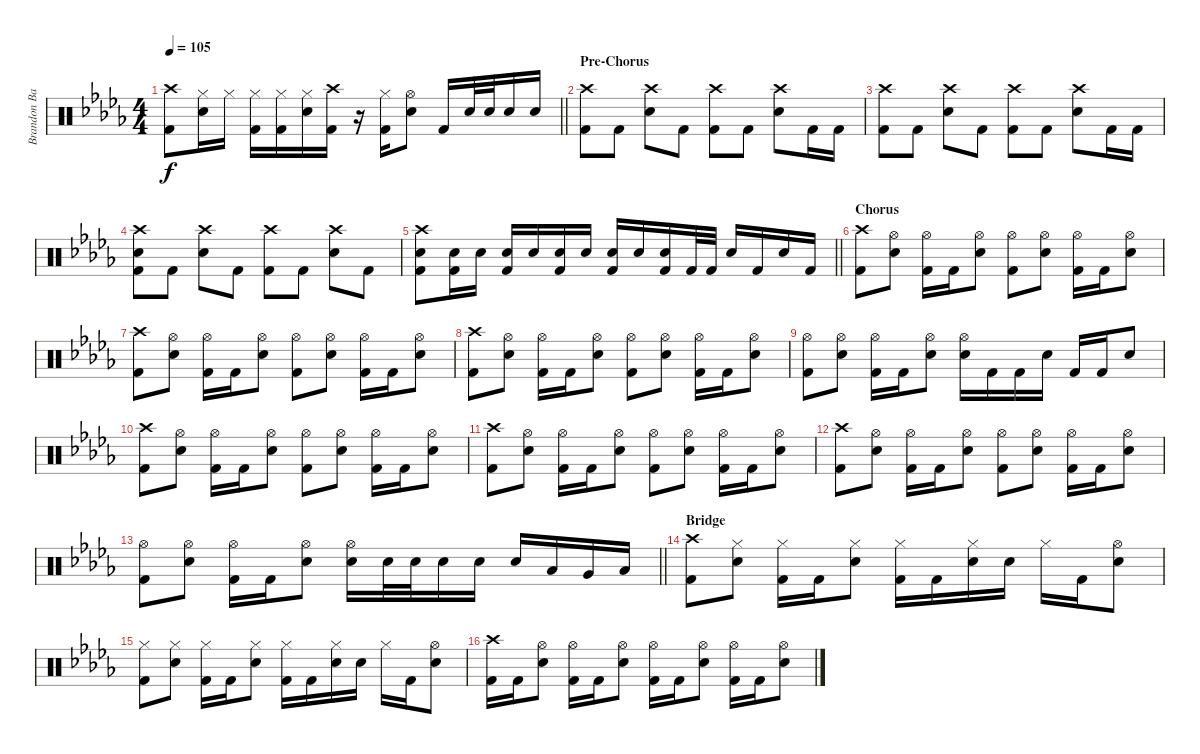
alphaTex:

\track ("Brandon Barnes - Drums" "Brandon Ba") {instrument percussion}
\staff {score}
\articulation defaults
\ts (4 4)
\tempo 105
\clef neutral
\barLineRight lightlight
\ks db
("Crash high (hit)" "Kick (hit) 2").8{dy f} ("Snare (hit) 2" "Hi-Hat (closed)").16 "Hi-Hat (closed)".16 ("Kick (hit) 2" "Hi-Hat (closed)").16 ("Kick (hit) 2" "Hi-Hat (closed)").16 ("Snare (hit) 2" "Hi-Hat (closed)").16 ("Crash high (hit)" "Kick (hit) 2").16 r.16 ("Kick (hit) 2" "Hi-Hat (closed)").16 ("Snare (hit) 2" "Hi-Hat (open)").8 "Kick (hit) 2".16 "Snare (hit) 2".32 "Snare (hit) 2".32 "Snare (hit) 2".16 "Snare (hit) 2".16 |
\section ("" "Pre-Chorus")
("Kick (hit) 2" "Crash high (hit)").8 "Kick (hit) 2".8 ("Snare (hit) 2" "Crash high (hit)").8 "Kick (hit) 2".8 ("Kick (hit) 2" "Crash high (hit)").8 "Kick (hit) 2".8 ("Snare (hit) 2" "Crash high (hit)").8 "Kick (hit) 2".16 "Kick (hit) 2".16 |
("Kick (hit) 2" "Crash high (hit)").8 "Kick (hit) 2".8 ("Snare (hit) 2" "Crash high (hit)").8 "Kick (hit) 2".8 ("Kick (hit) 2" "Crash high (hit)").8 "Kick (hit) 2".8 ("Snare (hit) 2" "Crash high (hit)").8 "Kick (hit) 2".16 "Kick (hit) 2".16 |
("Kick (hit) 2" "Crash high (hit)" "Snare (hit) 2").8 "Kick (hit) 2".8 ("Snare (hit) 2" "Crash high (hit)").8 "Kick (hit) 2".8 ("Kick (hit) 2" "Crash high (hit)").8 "Kick (hit) 2".8 ("Snare (hit) 2" "Crash high (hit)").8 "Kick (hit) 2".8 |
\barLineRight lightlight
("Snare (hit) 2" "Crash high (hit)" "Kick (hit) 2").8 ("Snare (hit) 2" "Kick (hit) 2").16 "Snare (hit) 2".16 ("Snare (hit) 2" "Kick (hit) 2").16 "Snare (hit) 2".16 ("Snare (hit) 2" "Kick (hit) 2").16 "Snare (hit) 2".16 ("Snare (hit) 2" "Kick (hit) 2").16 "Snare (hit) 2".16 ("Snare (hit) 2" "Kick (hit) 2").16 "Kick (hit) 2".32 "Kick (hit) 2".32 "Snare (hit) 2".16 "Kick (hit) 2".16 "Snare (hit) 2".16 "Kick (hit) 2".16 |
\section ("" "Chorus")
("Crash high (hit)" "Kick (hit) 2").8 ("Snare (hit) 2" "Hi-Hat (open)").8 ("Kick (hit) 2" "Hi-Hat (open)").16 "Kick (hit) 2".16 ("Snare (hit) 2" "Hi-Hat (open)").8 ("Hi-Hat (open)" "Kick (hit) 2").8 ("Snare (hit) 2" "Hi-Hat (open)").8 ("Kick (hit) 2" "Hi-Hat (open)").16 "Kick (hit) 2".16 ("Snare (hit) 2" "Hi-Hat (open)").8 |
("Crash high (hit)" "Kick (hit) 2").8 ("Snare (hit) 2" "Hi-Hat (open)").8 ("Kick (hit) 2" "Hi-Hat (open)").16 "Kick (hit) 2".16 ("Snare (hit) 2" "Hi-Hat (open)").8 ("Hi-Hat (open)" "Kick (hit) 2").8 ("Snare (hit) 2" "Hi-Hat (open)").8 ("Kick (hit) 2" "Hi-Hat (open)").16 "Kick (hit) 2".16 ("Snare (hit) 2" "Hi-Hat (open)").8 |
("Crash high (hit)" "Kick (hit) 2").8 ("Snare (hit) 2" "Hi-Hat (open)").8 ("Kick (hit) 2" "Hi-Hat (open)").16 "Kick (hit) 2".16 ("Snare (hit) 2" "Hi-Hat (open)").8 ("Hi-Hat (open)" "Kick (hit) 2").8 ("Snare (hit) 2" "Hi-Hat (open)").8 ("Kick (hit) 2" "Hi-Hat (open)").16 "Kick (hit) 2".16 ("Snare (hit) 2" "Hi-Hat (open)").8 |
("Hi-Hat (open)" "Kick (hit) 2").8 ("Snare (hit) 2" "Hi-Hat (open)").8 ("Kick (hit) 2" "Hi-Hat (open)").16 "Kick (hit) 2".16 ("Snare (hit) 2" "Hi-Hat (open)").8 ("Snare (hit) 2" "Hi-Hat (open)").16 "Kick (hit) 2".16 "Kick (hit) 2".16 "Snare (hit) 2".16 "Kick (hit) 2".16 "Kick (hit) 2".16 "Snare (hit) 2".8 |
("Crash high (hit)" "Kick (hit) 2").8 ("Snare (hit) 2" "Hi-Hat (open)").8 ("Kick (hit) 2" "Hi-Hat (open)").16 "Kick (hit) 2".16 ("Snare (hit) 2" "Hi-Hat (open)").8 ("Hi-Hat (open)" "Kick (hit) 2").8 ("Snare (hit) 2" "Hi-Hat (open)").8 ("Kick (hit) 2" "Hi-Hat (open)").16 "Kick (hit) 2".16 ("Snare (hit) 2" "Hi-Hat (open)").8 |
("Crash high (hit)" "Kick (hit) 2").8 ("Snare (hit) 2" "Hi-Hat (open)").8 ("Kick (hit) 2" "Hi-Hat (open)").16 "Kick (hit) 2".16 ("Snare (hit) 2" "Hi-Hat (open)").8 ("Hi-Hat (open)" "Kick (hit) 2").8 ("Snare (hit) 2" "Hi-Hat (open)").8 ("Kick (hit) 2" "Hi-Hat (open)").16 "Kick (hit) 2".16 ("Snare (hit) 2" "Hi-Hat (open)").8 |
("Crash high (hit)" "Kick (hit) 2").8 ("Snare (hit) 2" "Hi-Hat (open)").8 ("Kick (hit) 2" "Hi-Hat (open)").16 "Kick (hit) 2".16 ("Snare (hit) 2" "Hi-Hat (open)").8 ("Hi-Hat (open)" "Kick (hit) 2").8 ("Snare (hit) 2" "Hi-Hat (open)").8 ("Kick (hit) 2" "Hi-Hat (open)").16 "Kick (hit) 2".16 ("Snare (hit) 2" "Hi-Hat (open)").8 |
\barLineRight lightlight
("Hi-Hat (open)" "Kick (hit) 2").8 ("Snare (hit) 2" "Hi-Hat (open)").8 ("Kick (hit) 2" "Hi-Hat (open)").16 "Kick (hit) 2".16 ("Snare (hit) 2" "Hi-Hat (open)").8 ("Snare (hit) 2" "Hi-Hat (open)").16 "Snare (hit) 2".32 "Snare (hit) 2".32 "Snare (hit) 2".16 "Snare (hit) 2".16 "Snare (hit) 2".16 "Low Tom (hit)".16 "Very Low Tom (hit)".16 "Low Floor Tom (hit)".16 |
\section ("" "Bridge")
("Crash high (hit)" "Kick (hit) 2").8 ("Snare (hit) 2" "Hi-Hat (closed)").8 ("Hi-Hat (closed)" "Kick (hit) 2").16 "Kick (hit) 2".16 ("Snare (hit) 2" "Hi-Hat (closed)").8 ("Hi-Hat (closed)" "Kick (hit) 2").16 "Kick (hit) 2".16 ("Snare (hit) 2" "Hi-Hat (closed)").16 "Snare (hit) 2".16 "Hi-Hat (closed)".16 "Kick (hit) 2".16 ("Snare (hit) 2" "Hi-Hat (open)").8 |
("Hi-Hat (closed)" "Kick (hit) 2").8 ("Snare (hit) 2" "Hi-Hat (closed)").8 ("Hi-Hat (closed)" "Kick (hit) 2").16 "Kick (hit) 2".16 ("Snare (hit) 2" "Hi-Hat (closed)").8 ("Hi-Hat (closed)" "Kick (hit) 2").16 "Kick (hit) 2".16 ("Snare (hit) 2" "Hi-Hat (closed)").16 "Snare (hit) 2".16 "Hi-Hat (closed)".16 "Kick (hit) 2".16 ("Snare (hit) 2" "Hi-Hat (open)").8 |
("Crash high (hit)" "Kick (hit) 2").16 "Kick (hit) 2".16 ("Snare (hit) 2" "Hi-Hat (open)").8 ("Hi-Hat (open)" "Kick (hit) 2").16 "Kick (hit) 2".16 ("Snare (hit) 2" "Hi-Hat (open)").8 ("Hi-Hat (open)" "Kick (hit) 2").16 "Kick (hit) 2".16 ("Snare (hit) 2" "Hi-Hat (open)").8 ("Hi-Hat (open)" "Kick (hit) 2").16 "Kick (hit) 2".16 ("Snare (hit) 2" "Hi-Hat (open)").8
